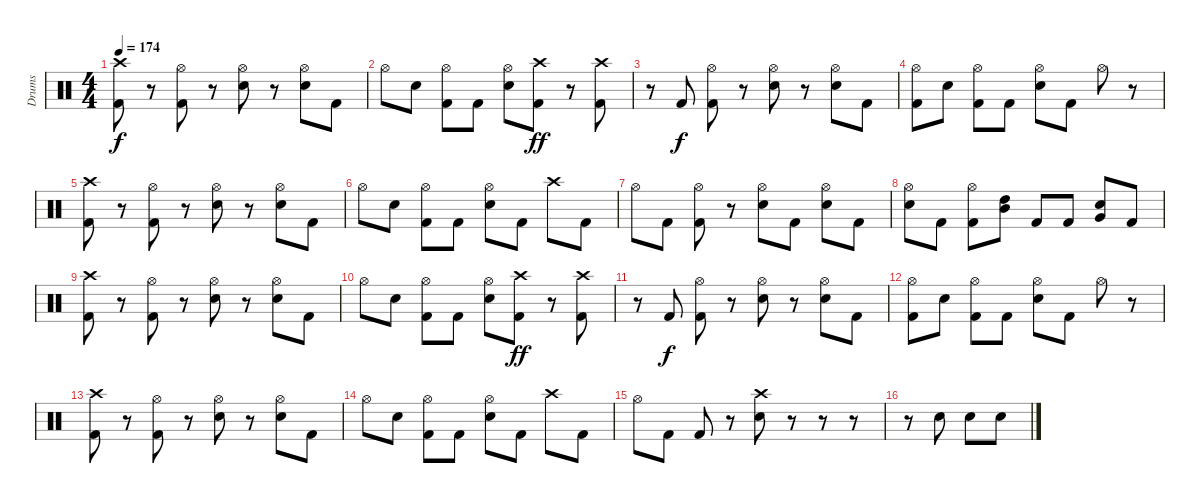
\track ("Drums" "Drums") {instrument percussion}
\staff {score}
\articulation defaults
\ts (4 4)
\tempo 174
\clef neutral
\ks c
("Crash high (hit)" "Kick (hit) 2").8{dy f} r.8 ("Hi-Hat (open)" "Kick (hit) 2").8 r.8 ("Hi-Hat (open)" "Electric Snare (hit)").8 r.8 ("Hi-Hat (open)" "Electric Snare (hit)").8 "Kick (hit) 2".8 |
"Hi-Hat (open)".8 "Electric Snare (hit)".8 ("Hi-Hat (open)" "Kick (hit) 2").8 "Kick (hit) 2".8 ("Hi-Hat (open)" "Electric Snare (hit)").8 ("Crash high (hit)" "Kick (hit) 2").8{dy ff} r.8 ("Crash high (hit)" "Kick (hit) 2").8 |
r.8 "Kick (hit) 2".8{dy f} ("Hi-Hat (open)" "Kick (hit) 2").8 r.8 ("Hi-Hat (open)" "Electric Snare (hit)").8 r.8 ("Hi-Hat (open)" "Electric Snare (hit)").8 "Kick (hit) 2".8 |
("Hi-Hat (open)" "Kick (hit) 2").8 "Electric Snare (hit)".8 ("Hi-Hat (open)" "Kick (hit) 2").8 "Kick (hit) 2".8 ("Hi-Hat (open)" "Electric Snare (hit)").8 "Kick (hit) 2".8 "Hi-Hat (open)".8 r.8 |
("Crash high (hit)" "Kick (hit) 2").8 r.8 ("Hi-Hat (open)" "Kick (hit) 2").8 r.8 ("Hi-Hat (open)" "Electric Snare (hit)").8 r.8 ("Hi-Hat (open)" "Electric Snare (hit)").8 "Kick (hit) 2".8 |
"Hi-Hat (open)".8 "Electric Snare (hit)".8 ("Hi-Hat (open)" "Kick (hit) 2").8 "Kick (hit) 2".8 ("Hi-Hat (open)" "Electric Snare (hit)").8 "Kick (hit) 2".8 "Crash high (hit)".8 "Kick (hit) 2".8 |
"Hi-Hat (open)".8 "Kick (hit) 2".8 ("Hi-Hat (open)" "Kick (hit) 2").8 r.8 ("Hi-Hat (open)" "Electric Snare (hit)").8 "Kick (hit) 2".8 ("Hi-Hat (open)" "Electric Snare (hit)").8 "Kick (hit) 2".8 |
("Hi-Hat (open)" "Electric Snare (hit)").8 "Kick (hit) 2".8 ("Hi-Hat (open)" "Kick (hit) 2").8 ("High Tom (hit)" "Mid Tom (hit)").8 "Kick (hit) 2".8 "Kick (hit) 2".8 ("Very Low Tom (hit)" "Electric Snare (hit)").8 "Kick (hit) 2".8 |
("Crash high (hit)" "Kick (hit) 2").8 r.8 ("Hi-Hat (open)" "Kick (hit) 2").8 r.8 ("Hi-Hat (open)" "Electric Snare (hit)").8 r.8 ("Hi-Hat (open)" "Electric Snare (hit)").8 "Kick (hit) 2".8 |
"Hi-Hat (open)".8 "Electric Snare (hit)".8 ("Hi-Hat (open)" "Kick (hit) 2").8 "Kick (hit) 2".8 ("Hi-Hat (open)" "Electric Snare (hit)").8 ("Crash high (hit)" "Kick (hit) 2").8{dy ff} r.8 ("Crash high (hit)" "Kick (hit) 2").8 |
r.8 "Kick (hit) 2".8{dy f} ("Hi-Hat (open)" "Kick (hit) 2").8 r.8 ("Hi-Hat (open)" "Electric Snare (hit)").8 r.8 ("Hi-Hat (open)" "Electric Snare (hit)").8 "Kick (hit) 2".8 |
("Hi-Hat (open)" "Kick (hit) 2").8 "Electric Snare (hit)".8 ("Hi-Hat (open)" "Kick (hit) 2").8 "Kick (hit) 2".8 ("Hi-Hat (open)" "Electric Snare (hit)").8 "Kick (hit) 2".8 "Hi-Hat (open)".8 r.8 |
("Crash high (hit)" "Kick (hit) 2").8 r.8 ("Hi-Hat (open)" "Kick (hit) 2").8 r.8 ("Hi-Hat (open)" "Electric Snare (hit)").8 r.8 ("Hi-Hat (open)" "Electric Snare (hit)").8 "Kick (hit) 2".8 |
"Hi-Hat (open)".8 "Electric Snare (hit)".8 ("Hi-Hat (open)" "Kick (hit) 2").8 "Kick (hit) 2".8 ("Hi-Hat (open)" "Electric Snare (hit)").8 "Kick (hit) 2".8 "Crash high (hit)".8 "Kick (hit) 2".8 |
"Hi-Hat (open)".8 "Kick (hit) 2".8 "Kick (hit) 2".8 r.8 ("Crash high (hit)" "Electric Snare (hit)").8 r.8 r.8 r.8 |
r.8 "Electric Snare (hit)".8 "Electric Snare (hit)".8 "Electric Snare (hit)".8
